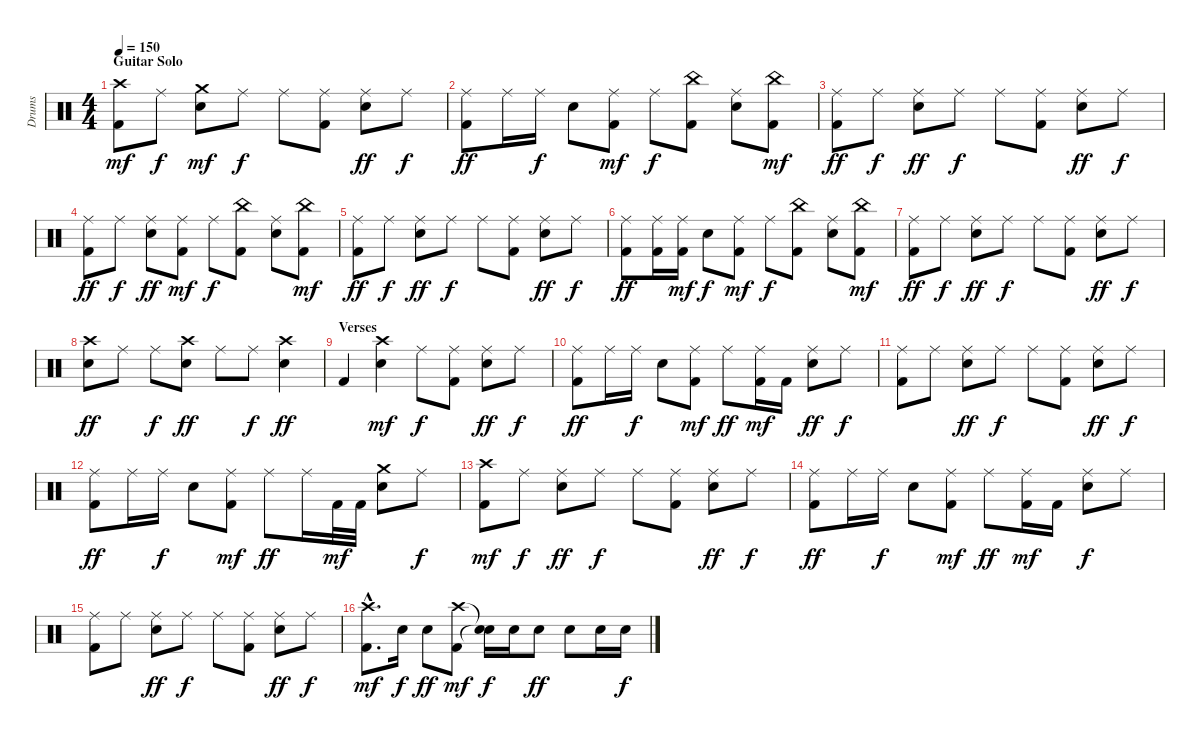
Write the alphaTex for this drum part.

\track ("Drums" "Drums") {instrument percussion}
\staff {score}
\articulation defaults
\ts (4 4)
\section ("" "Guitar Solo")
\tempo 150
\clef neutral
\ks c
("Kick (hit) 2" "Crash high (hit)").8{dy mf} "Ride (middle)".8{dy f} ("Crash medium (hit)" "Snare (hit) 2").8{dy mf} "Ride (middle)".8{dy f} "Ride (middle)".8 ("Ride (middle)" "Kick (hit) 2").8 ("Ride (middle)" "Snare (hit) 2").8{dy ff} "Ride (middle)".8{dy f} |
("Ride (middle)" "Kick (hit) 2").8{dy ff} "Ride (middle)".16 "Ride (middle)".16{dy f} "Snare (hit) 2".8 ("Ride (middle)" "Kick (hit) 2").8{dy mf} "Ride (middle)".8{dy f} ("China (hit)" "Kick (hit) 2").8 ("Ride (middle)" "Snare (hit) 2").8 ("China (hit)" "Kick (hit) 2").8{dy mf} |
("Ride (middle)" "Kick (hit) 2").8{dy ff} "Ride (middle)".8{dy f} ("Ride (middle)" "Snare (hit) 2").8{dy ff} "Ride (middle)".8{dy f} "Ride (middle)".8 ("Ride (middle)" "Kick (hit) 2").8 ("Ride (middle)" "Snare (hit) 2").8{dy ff} "Ride (middle)".8{dy f} |
("Ride (middle)" "Kick (hit) 2").8{dy ff} "Ride (middle)".8{dy f} ("Ride (middle)" "Snare (hit) 2").8{dy ff} ("Ride (middle)" "Kick (hit) 2").8{dy mf} "Ride (middle)".8{dy f} ("China (hit)" "Kick (hit) 2").8 ("Ride (middle)" "Snare (hit) 2").8 ("China (hit)" "Kick (hit) 2").8{dy mf} |
("Ride (middle)" "Kick (hit) 2").8{dy ff} "Ride (middle)".8{dy f} ("Ride (middle)" "Snare (hit) 2").8{dy ff} "Ride (middle)".8{dy f} "Ride (middle)".8 ("Ride (middle)" "Kick (hit) 2").8 ("Ride (middle)" "Snare (hit) 2").8{dy ff} "Ride (middle)".8{dy f} |
("Ride (middle)" "Kick (hit) 2").8{dy ff} ("Kick (hit) 2" "Ride (middle)").16 ("Kick (hit) 2" "Ride (middle)").16{dy mf} "Snare (hit) 2".8{dy f} ("Ride (middle)" "Kick (hit) 2").8{dy mf} "Ride (middle)".8{dy f} ("China (hit)" "Kick (hit) 2").8 ("Ride (middle)" "Snare (hit) 2").8 ("China (hit)" "Kick (hit) 2").8{dy mf} |
("Ride (middle)" "Kick (hit) 2").8{dy ff} "Ride (middle)".8{dy f} ("Ride (middle)" "Snare (hit) 2").8{dy ff} "Ride (middle)".8{dy f} "Ride (middle)".8 ("Ride (middle)" "Kick (hit) 2").8 ("Ride (middle)" "Snare (hit) 2").8{dy ff} "Ride (middle)".8{dy f} |
("Crash high (hit)" "Snare (hit) 2").8{dy ff} "Ride (middle)".8 "Ride (middle)".8{dy f} ("Crash high (hit)" "Snare (hit) 2").8{dy ff} "Ride (middle)".8 "Ride (middle)".8{dy f} ("Crash high (hit)" "Snare (hit) 2").4{dy ff} |
\section ("" "Verses")
"Kick (hit) 2".4 ("Crash high (hit)" "Snare (hit) 2").4{dy mf} "Ride (middle)".8{dy f} ("Ride (middle)" "Kick (hit) 2").8 ("Ride (middle)" "Snare (hit) 2").8{dy ff} "Ride (middle)".8{dy f} |
("Ride (middle)" "Kick (hit) 2").8{dy ff} "Ride (middle)".16 "Ride (middle)".16{dy f} "Snare (hit) 2".8 ("Ride (middle)" "Kick (hit) 2").8{dy mf} "Ride (middle)".8{dy ff} ("Ride (middle)" "Kick (hit) 2").16{dy mf} "Kick (hit) 2".16 ("Ride (middle)" "Snare (hit) 2").8{dy ff} "Ride (middle)".8{dy f} |
("Ride (middle)" "Kick (hit) 2").8 "Ride (middle)".8 ("Ride (middle)" "Snare (hit) 2").8{dy ff} "Ride (middle)".8{dy f} "Ride (middle)".8 ("Ride (middle)" "Kick (hit) 2").8 ("Ride (middle)" "Snare (hit) 2").8{dy ff} "Ride (middle)".8{dy f} |
("Ride (middle)" "Kick (hit) 2").8{dy ff} "Ride (middle)".16 "Ride (middle)".16{dy f} "Snare (hit) 2".8 ("Ride (middle)" "Kick (hit) 2").8{dy mf} "Ride (middle)".8{dy ff} "Ride (middle)".16 "Kick (hit) 2".32{dy mf} "Kick (hit) 2".32 ("Crash medium (hit)" "Snare (hit) 2").8 "Ride (middle)".8{dy f} |
("Crash high (hit)" "Kick (hit) 2").8{dy mf} "Ride (middle)".8{dy f} ("Ride (middle)" "Snare (hit) 2").8{dy ff} "Ride (middle)".8{dy f} "Ride (middle)".8 ("Ride (middle)" "Kick (hit) 2").8 ("Ride (middle)" "Snare (hit) 2").8{dy ff} "Ride (middle)".8{dy f} |
("Ride (middle)" "Kick (hit) 2").8{dy ff} "Ride (middle)".16 "Ride (middle)".16{dy f} "Snare (hit) 2".8 ("Ride (middle)" "Kick (hit) 2").8{dy mf} "Ride (middle)".8{dy ff} ("Ride (middle)" "Kick (hit) 2").16{dy mf} "Kick (hit) 2".16 ("Ride (middle)" "Snare (hit) 2").8{dy f} "Ride (middle)".8 |
("Ride (middle)" "Kick (hit) 2").8 "Ride (middle)".8 ("Ride (middle)" "Snare (hit) 2").8{dy ff} "Ride (middle)".8{dy f} "Ride (middle)".8 ("Ride (middle)" "Kick (hit) 2").8 ("Ride (middle)" "Snare (hit) 2").8{dy ff} "Ride (middle)".8{dy f} |
("Crash high (hit)"{hac} "Kick (hit) 2"{hac}).8{d dy mf} "Snare (hit) 2".16{dy f} "Snare (hit) 2".8{dy ff} ("Crash high (hit)" "Kick (hit) 2").8{dy mf} ("Snare (hit)"{t} "Snare (hit)"{t}).16{dy f} "Snare (hit) 2".16 "Snare (hit) 2".8{dy ff} "Snare (hit) 2".8 "Snare (hit) 2".16 "Snare (hit) 2".16{dy f}
